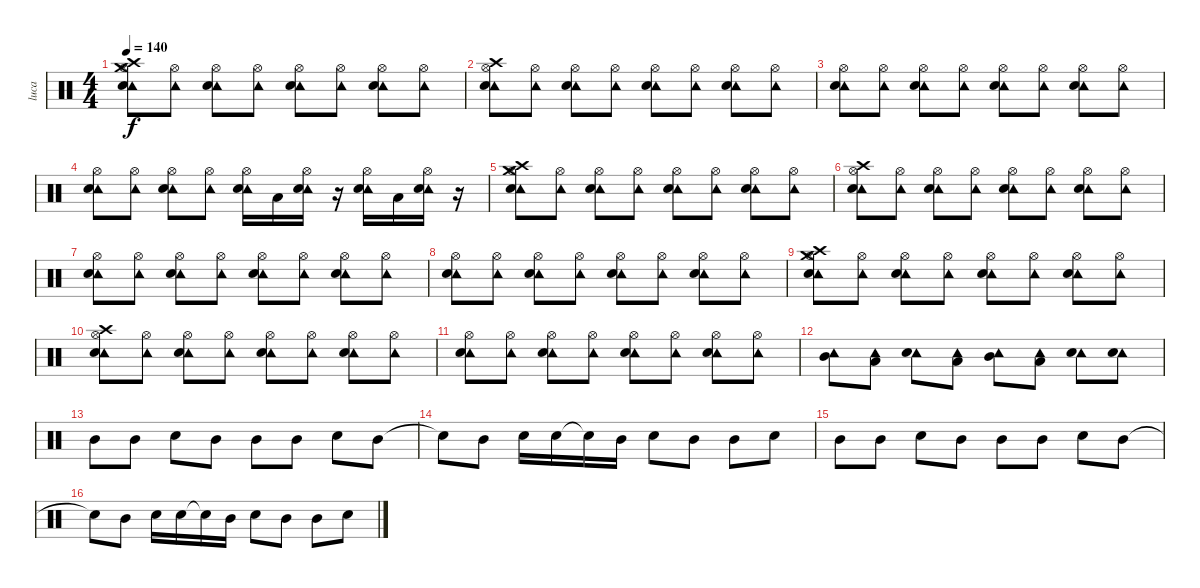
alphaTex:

\track ("luca" "luca") {instrument percussion}
\staff {score}
\articulation defaults
\ts (4 4)
\tempo 140
\clef neutral
\ks c
("Tambourine (hit)" "Hi-Hat (open)" "Crash high (hit)" "Crash medium (hit)" "Snare (hit) 2").8{dy f} ("Tambourine (hit)" "Hi-Hat (open)").8 ("Tambourine (hit)" "Hi-Hat (open)" "Snare (hit) 2").8 ("Tambourine (hit)" "Hi-Hat (open)").8 ("Tambourine (hit)" "Hi-Hat (open)" "Snare (hit) 2").8 ("Tambourine (hit)" "Hi-Hat (open)").8 ("Tambourine (hit)" "Hi-Hat (open)" "Snare (hit) 2").8 ("Tambourine (hit)" "Hi-Hat (open)").8 |
("Tambourine (hit)" "Hi-Hat (open)" "Crash high (hit)" "Snare (hit) 2").8 ("Tambourine (hit)" "Hi-Hat (open)").8 ("Tambourine (hit)" "Hi-Hat (open)" "Snare (hit) 2").8 ("Tambourine (hit)" "Hi-Hat (open)").8 ("Tambourine (hit)" "Hi-Hat (open)" "Snare (hit) 2").8 ("Tambourine (hit)" "Hi-Hat (open)").8 ("Tambourine (hit)" "Hi-Hat (open)" "Snare (hit) 2").8 ("Tambourine (hit)" "Hi-Hat (open)").8 |
("Tambourine (hit)" "Hi-Hat (open)" "Snare (hit) 2").8 ("Tambourine (hit)" "Hi-Hat (open)").8 ("Tambourine (hit)" "Hi-Hat (open)" "Snare (hit) 2").8 ("Tambourine (hit)" "Hi-Hat (open)").8 ("Tambourine (hit)" "Hi-Hat (open)" "Snare (hit) 2").8 ("Tambourine (hit)" "Hi-Hat (open)").8 ("Tambourine (hit)" "Hi-Hat (open)" "Snare (hit) 2").8 ("Tambourine (hit)" "Hi-Hat (open)").8 |
("Tambourine (hit)" "Hi-Hat (open)" "Snare (hit) 2").8 ("Tambourine (hit)" "Hi-Hat (open)").8 ("Tambourine (hit)" "Hi-Hat (open)" "Snare (hit) 2").8 ("Tambourine (hit)" "Hi-Hat (open)").8 ("Tambourine (hit)" "Hi-Hat (open)" "Snare (hit) 2").16 "Low Floor Tom (hit)".16 ("Tambourine (hit)" "Hi-Hat (open)" "Snare (hit) 2").16 r.16 ("Tambourine (hit)" "Hi-Hat (open)" "Snare (hit) 2").16 "Low Floor Tom (hit)".16 ("Tambourine (hit)" "Hi-Hat (open)" "Snare (hit) 2").16 r.16 |
("Tambourine (hit)" "Hi-Hat (open)" "Crash high (hit)" "Crash medium (hit)" "Snare (hit) 2").8 ("Tambourine (hit)" "Hi-Hat (open)").8 ("Tambourine (hit)" "Hi-Hat (open)" "Snare (hit) 2").8 ("Tambourine (hit)" "Hi-Hat (open)").8 ("Tambourine (hit)" "Hi-Hat (open)" "Snare (hit) 2").8 ("Tambourine (hit)" "Hi-Hat (open)").8 ("Tambourine (hit)" "Hi-Hat (open)" "Snare (hit) 2").8 ("Tambourine (hit)" "Hi-Hat (open)").8 |
("Tambourine (hit)" "Hi-Hat (open)" "Crash high (hit)" "Snare (hit) 2").8 ("Tambourine (hit)" "Hi-Hat (open)").8 ("Tambourine (hit)" "Hi-Hat (open)" "Snare (hit) 2").8 ("Tambourine (hit)" "Hi-Hat (open)").8 ("Tambourine (hit)" "Hi-Hat (open)" "Snare (hit) 2").8 ("Tambourine (hit)" "Hi-Hat (open)").8 ("Tambourine (hit)" "Hi-Hat (open)" "Snare (hit) 2").8 ("Tambourine (hit)" "Hi-Hat (open)").8 |
("Tambourine (hit)" "Hi-Hat (open)" "Snare (hit) 2").8 ("Tambourine (hit)" "Hi-Hat (open)").8 ("Tambourine (hit)" "Hi-Hat (open)" "Snare (hit) 2").8 ("Tambourine (hit)" "Hi-Hat (open)").8 ("Tambourine (hit)" "Hi-Hat (open)" "Snare (hit) 2").8 ("Tambourine (hit)" "Hi-Hat (open)").8 ("Tambourine (hit)" "Hi-Hat (open)" "Snare (hit) 2").8 ("Tambourine (hit)" "Hi-Hat (open)").8 |
("Tambourine (hit)" "Hi-Hat (open)" "Snare (hit) 2").8 ("Tambourine (hit)" "Hi-Hat (open)").8 ("Tambourine (hit)" "Hi-Hat (open)" "Snare (hit) 2").8 ("Tambourine (hit)" "Hi-Hat (open)").8 ("Tambourine (hit)" "Hi-Hat (open)" "Snare (hit) 2").8 ("Tambourine (hit)" "Hi-Hat (open)").8 ("Tambourine (hit)" "Hi-Hat (open)" "Snare (hit) 2").8 ("Tambourine (hit)" "Hi-Hat (open)").8 |
("Tambourine (hit)" "Hi-Hat (open)" "Crash high (hit)" "Crash medium (hit)" "Snare (hit) 2").8 ("Tambourine (hit)" "Hi-Hat (open)").8 ("Tambourine (hit)" "Hi-Hat (open)" "Snare (hit) 2").8 ("Tambourine (hit)" "Hi-Hat (open)").8 ("Tambourine (hit)" "Hi-Hat (open)" "Snare (hit) 2").8 ("Tambourine (hit)" "Hi-Hat (open)").8 ("Tambourine (hit)" "Hi-Hat (open)" "Snare (hit) 2").8 ("Tambourine (hit)" "Hi-Hat (open)").8 |
("Tambourine (hit)" "Hi-Hat (open)" "Crash high (hit)" "Snare (hit) 2").8 ("Tambourine (hit)" "Hi-Hat (open)").8 ("Tambourine (hit)" "Hi-Hat (open)" "Snare (hit) 2").8 ("Tambourine (hit)" "Hi-Hat (open)").8 ("Tambourine (hit)" "Hi-Hat (open)" "Snare (hit) 2").8 ("Tambourine (hit)" "Hi-Hat (open)").8 ("Tambourine (hit)" "Hi-Hat (open)" "Snare (hit) 2").8 ("Tambourine (hit)" "Hi-Hat (open)").8 |
("Tambourine (hit)" "Hi-Hat (open)" "Snare (hit) 2").8 ("Tambourine (hit)" "Hi-Hat (open)").8 ("Tambourine (hit)" "Hi-Hat (open)" "Snare (hit) 2").8 ("Tambourine (hit)" "Hi-Hat (open)").8 ("Tambourine (hit)" "Hi-Hat (open)" "Snare (hit) 2").8 ("Tambourine (hit)" "Hi-Hat (open)").8 ("Tambourine (hit)" "Hi-Hat (open)" "Snare (hit) 2").8 ("Tambourine (hit)" "Hi-Hat (open)").8 |
("Tambourine (hit)" "Mid Tom (hit)").8 ("Tambourine (hit)" "Low Floor Tom (hit)").8 ("Tambourine (hit)" "Snare (hit) 2").8 ("Tambourine (hit)" "Low Floor Tom (hit)").8 ("Tambourine (hit)" "Mid Tom (hit)").8 ("Tambourine (hit)" "Low Floor Tom (hit)").8 ("Tambourine (hit)" "Snare (hit) 2").8 ("Tambourine (hit)" "Snare (hit) 2").8 |
"Mid Tom (hit)".8 "Mid Tom (hit)".8 "Snare (hit) 2".8 "Mid Tom (hit)".8 "Mid Tom (hit)".8 "Mid Tom (hit)".8 "Snare (hit) 2".8 "Mid Tom (hit)".8 |
"Snare (hit)"{t}.8 "Mid Tom (hit)".8 "Snare (hit) 2".16 "Snare (hit) 2".16 "Snare (hit) 2"{t}.16 "Mid Tom (hit)".16 "Snare (hit) 2".8 "Mid Tom (hit)".8 "Mid Tom (hit)".8 "Snare (hit) 2".8 |
"Mid Tom (hit)".8 "Mid Tom (hit)".8 "Snare (hit) 2".8 "Mid Tom (hit)".8 "Mid Tom (hit)".8 "Mid Tom (hit)".8 "Snare (hit) 2".8 "Mid Tom (hit)".8 |
"Snare (hit)"{t}.8 "Mid Tom (hit)".8 "Snare (hit) 2".16 "Snare (hit) 2".16 "Snare (hit) 2"{t}.16 "Mid Tom (hit)".16 "Snare (hit) 2".8 "Mid Tom (hit)".8 "Mid Tom (hit)".8 "Snare (hit) 2".8
